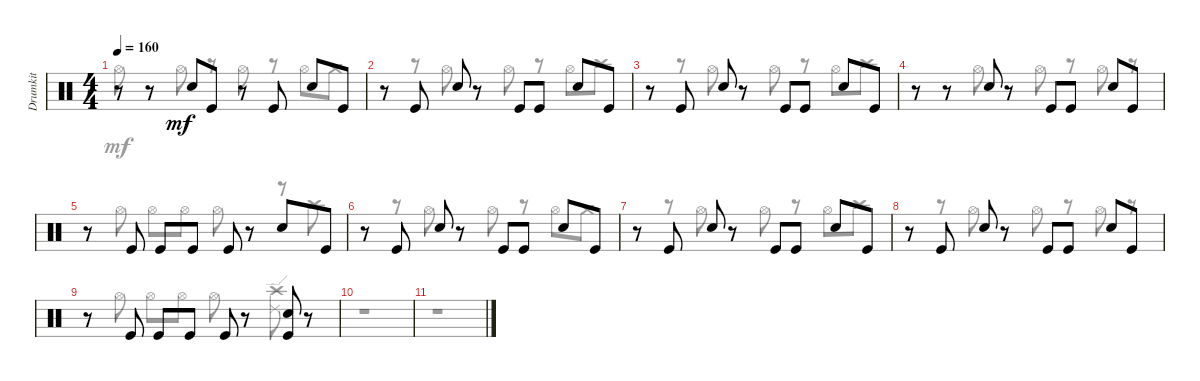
\track ("Drumkit" "Drumkit") {instrument percussion}
\staff {score}
\articulation defaults
\voice
\ts (4 4)
\tempo 160
\clef neutral
\ks c
r.8{dy mf} r.8 "Snare (hit) 2".8 "Kick (hit)".8 r.8 "Kick (hit)".8 "Snare (hit) 2".8 "Kick (hit)".8 |
r.8 "Kick (hit)".8 "Snare (hit) 2".8 r.8 "Kick (hit)".8 "Kick (hit)".8 "Snare (hit) 2".8 "Kick (hit)".8 |
r.8 "Kick (hit)".8 "Snare (hit) 2".8 r.8 "Kick (hit)".8 "Kick (hit)".8 "Snare (hit) 2".8 "Kick (hit)".8 |
r.8 r.8 "Snare (hit) 2".8 r.8 "Kick (hit)".8 "Kick (hit)".8 "Snare (hit) 2".8 "Kick (hit)".8 |
r.8 "Kick (hit)".8 "Kick (hit)".8 "Kick (hit)".8 "Kick (hit)".8 r.8 "Snare (hit) 2".8 "Kick (hit)".8 |
r.8 "Kick (hit)".8 "Snare (hit) 2".8 r.8 "Kick (hit)".8 "Kick (hit)".8 "Snare (hit) 2".8 "Kick (hit)".8 |
r.8 "Kick (hit)".8 "Snare (hit) 2".8 r.8 "Kick (hit)".8 "Kick (hit)".8 "Snare (hit) 2".8 "Kick (hit)".8 |
r.8 "Kick (hit)".8 "Snare (hit) 2".8 r.8 "Kick (hit)".8 "Kick (hit)".8 "Snare (hit) 2".8 "Kick (hit)".8 |
r.8 "Kick (hit)".8 "Kick (hit)".8 "Kick (hit)".8 "Kick (hit)".8 r.8 ("Kick (hit)" "Snare (hit) 2").8 r.8 |
|
\voice
\clef neutral
\ottava regular
\simile none
\ks c "Hi-Hat (open)".8{dy mf}
r.8 "Hi-Hat (open)".8 r.8 "Hi-Hat (open)".8 r.8 "Hi-Hat (open)".8 "Crash medium (hit)".8 |
r.8 r.8 "Hi-Hat (open)".8 r.8 "Hi-Hat (open)".8 r.8 "Hi-Hat (open)".8 "Crash high (hit)".8 |
r.8 r.8 "Hi-Hat (open)".8 r.8 "Hi-Hat (open)".8 r.8 "Hi-Hat (open)".8 "Crash high (hit)".8 |
r.8 r.8 "Hi-Hat (open)".8 r.8 "Hi-Hat (open)".8 r.8 "Hi-Hat (open)".8 r.8 |
r.8 "Hi-Hat (open)".8 "Hi-Hat (open)".8 "Hi-Hat (open)".8 "Hi-Hat (open)".8 r.8 r.8 "Crash high (hit)".8 |
r.8 r.8 "Hi-Hat (open)".8 r.8 "Hi-Hat (open)".8 r.8 "Hi-Hat (open)".8 "Crash medium (hit)".8 |
r.8 r.8 "Hi-Hat (open)".8 r.8 "Hi-Hat (open)".8 r.8 "Hi-Hat (open)".8 "Crash high (hit)".8 |
r.8 r.8 "Hi-Hat (open)".8 r.8 "Hi-Hat (open)".8 r.8 "Hi-Hat (open)".8 r.8 |
r.8 "Hi-Hat (open)".8 "Hi-Hat (open)".8 "Hi-Hat (open)".8 "Hi-Hat (open)".8 r.8 ("Ride (edge) 2" "Crash high (hit)").8 r.8 |
r.1 |
r.1
